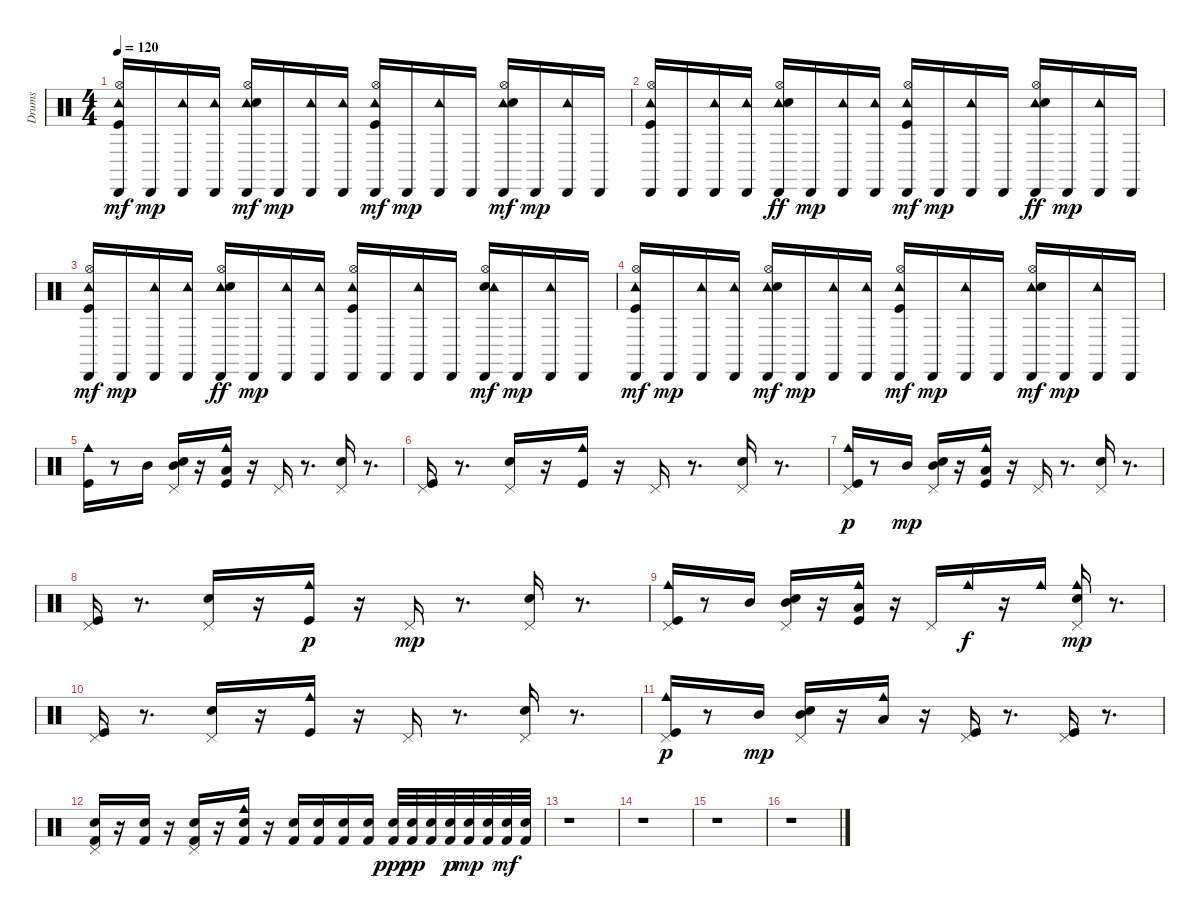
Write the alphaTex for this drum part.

\track ("Drums" "Drums") {instrument percussion}
\staff {score}
\articulation defaults
\ts (4 4)
\tempo 120
\clef neutral
\ks c
("Cabasa (hit)" "Hi-Hat (open)" "Tambourine (hit)" "Kick (hit)").16{dy mf} "Cabasa (hit)".16{dy mp} ("Cabasa (hit)" "Tambourine (hit)").16 ("Cabasa (hit)" "Tambourine (hit)").16 ("Cabasa (hit)" "Tambourine (hit)" "Electric Snare (hit)" "Hi-Hat (open)").16{dy mf} "Cabasa (hit)".16{dy mp} ("Tambourine (hit)" "Cabasa (hit)").16 ("Cabasa (hit)" "Tambourine (hit)").16 ("Tambourine (hit)" "Kick (hit)" "Cabasa (hit)" "Hi-Hat (open)").16{dy mf} "Cabasa (hit)".16{dy mp} ("Tambourine (hit)" "Cabasa (hit)").16 "Cabasa (hit)".16 ("Tambourine (hit)" "Electric Snare (hit)" "Cabasa (hit)" "Hi-Hat (open)").16{dy mf} "Cabasa (hit)".16{dy mp} ("Cabasa (hit)" "Tambourine (hit)").16 "Cabasa (hit)".16 |
("Hi-Hat (open)" "Kick (hit)" "Cabasa (hit)" "Tambourine (hit)").16 "Cabasa (hit)".16 ("Tambourine (hit)" "Cabasa (hit)").16 ("Tambourine (hit)" "Cabasa (hit)").16 ("Cabasa (hit)" "Tambourine (hit)" "Hi-Hat (open)" "Electric Snare (hit)").16{dy ff} "Cabasa (hit)".16{dy mp} ("Tambourine (hit)" "Cabasa (hit)").16 ("Cabasa (hit)" "Tambourine (hit)").16 ("Cabasa (hit)" "Kick (hit)" "Hi-Hat (open)" "Tambourine (hit)").16{dy mf} "Cabasa (hit)".16{dy mp} ("Tambourine (hit)" "Cabasa (hit)").16 "Cabasa (hit)".16 ("Hi-Hat (open)" "Tambourine (hit)" "Cabasa (hit)" "Electric Snare (hit)").16{dy ff} "Cabasa (hit)".16{dy mp} ("Tambourine (hit)" "Cabasa (hit)").16 "Cabasa (hit)".16 |
("Tambourine (hit)" "Cabasa (hit)" "Hi-Hat (open)" "Kick (hit)").16{dy mf} "Cabasa (hit)".16{dy mp} ("Tambourine (hit)" "Cabasa (hit)").16 ("Tambourine (hit)" "Cabasa (hit)").16 ("Hi-Hat (open)" "Cabasa (hit)" "Tambourine (hit)" "Electric Snare (hit)").16{dy ff} "Cabasa (hit)".16{dy mp} ("Cabasa (hit)" "Tambourine (hit)").16 ("Tambourine (hit)" "Cabasa (hit)").16 ("Hi-Hat (open)" "Cabasa (hit)" "Tambourine (hit)" "Kick (hit)").16 "Cabasa (hit)".16 ("Tambourine (hit)" "Cabasa (hit)").16 "Cabasa (hit)".16 ("Cabasa (hit)" "Electric Snare (hit)" "Hi-Hat (open)" "Tambourine (hit)").16{dy mf} "Cabasa (hit)".16{dy mp} ("Tambourine (hit)" "Cabasa (hit)").16 "Cabasa (hit)".16 |
("Cabasa (hit)" "Kick (hit)" "Hi-Hat (open)" "Tambourine (hit)").16{dy mf} "Cabasa (hit)".16{dy mp} ("Cabasa (hit)" "Tambourine (hit)").16 ("Cabasa (hit)" "Tambourine (hit)").16 ("Cabasa (hit)" "Tambourine (hit)" "Electric Snare (hit)" "Hi-Hat (open)").16{dy mf} "Cabasa (hit)".16{dy mp} ("Tambourine (hit)" "Cabasa (hit)").16 ("Tambourine (hit)" "Cabasa (hit)").16 ("Cabasa (hit)" "Tambourine (hit)" "Hi-Hat (open)" "Kick (hit)").16{dy mf} "Cabasa (hit)".16{dy mp} ("Cabasa (hit)" "Tambourine (hit)").16 "Cabasa (hit)".16 ("Tambourine (hit)" "Electric Snare (hit)" "Cabasa (hit)" "Hi-Hat (open)").16{dy mf} "Cabasa (hit)".16{dy mp} ("Cabasa (hit)" "Tambourine (hit)").16 "Cabasa (hit)".16 |
("Kick (hit)" "Cowbell medium (hit)").16 r.8 "Mid Tom (hit)".16 ("Hand Clap (hit)" "Mid Tom (hit)" "Pedal Hi-Hat (hit)").16 r.16 ("Cowbell medium (hit)" "Kick (hit)" "Low Floor Tom (hit)").16 r.16 "Pedal Hi-Hat (hit)".16 r.8{d} ("Hand Clap (hit)" "Pedal Hi-Hat (hit)").16 r.8{d} |
("Kick (hit)" "Pedal Hi-Hat (hit)").16 r.8{d} ("Hand Clap (hit)" "Pedal Hi-Hat (hit)").16 r.16 ("Cowbell medium (hit)" "Kick (hit)").16 r.16 "Pedal Hi-Hat (hit)".16 r.8{d} ("Pedal Hi-Hat (hit)" "Hand Clap (hit)").16 r.8{d} |
("Kick (hit)" "Pedal Hi-Hat (hit)" "Cowbell medium (hit)").16{dy p} r.8 "Mid Tom (hit)".16{dy mp} ("Pedal Hi-Hat (hit)" "Hand Clap (hit)" "Mid Tom (hit)").16 r.16 ("Cowbell medium (hit)" "Kick (hit)" "Low Floor Tom (hit)").16 r.16 "Pedal Hi-Hat (hit)".16 r.8{d} ("Hand Clap (hit)" "Pedal Hi-Hat (hit)").16 r.8{d} |
("Kick (hit)" "Pedal Hi-Hat (hit)").16 r.8{d} ("Pedal Hi-Hat (hit)" "Hand Clap (hit)").16 r.16 ("Cowbell medium (hit)" "Kick (hit)").16{dy p} r.16 "Pedal Hi-Hat (hit)".16{dy mp} r.8{d} ("Hand Clap (hit)" "Pedal Hi-Hat (hit)").16 r.8{d} |
("Kick (hit)" "Cowbell medium (hit)" "Pedal Hi-Hat (hit)").16 r.8 "Mid Tom (hit)".16 ("Hand Clap (hit)" "Pedal Hi-Hat (hit)" "Mid Tom (hit)").16 r.16 ("Low Floor Tom (hit)" "Cowbell medium (hit)" "Kick (hit)").16 r.16 "Pedal Hi-Hat (hit)".16 "Cowbell medium (hit)".16{dy f} r.16 "Cowbell medium (hit)".16 ("Pedal Hi-Hat (hit)" "Hand Clap (hit)" "Cowbell medium (hit)").16{dy mp} r.8{d} |
("Kick (hit)" "Pedal Hi-Hat (hit)").16 r.8{d} ("Hand Clap (hit)" "Pedal Hi-Hat (hit)").16 r.16 ("Kick (hit)" "Cowbell medium (hit)").16 r.16 "Pedal Hi-Hat (hit)".16 r.8{d} ("Pedal Hi-Hat (hit)" "Hand Clap (hit)").16 r.8{d} |
("Pedal Hi-Hat (hit)" "Kick (hit)" "Cowbell medium (hit)").16{dy p} r.8 "Mid Tom (hit)".16{dy mp} ("Mid Tom (hit)" "Hand Clap (hit)" "Pedal Hi-Hat (hit)").16 r.16 ("Cowbell medium (hit)" "Low Floor Tom (hit)").16 r.16 ("Kick (hit)" "Pedal Hi-Hat (hit)").16 r.8{d} ("Pedal Hi-Hat (hit)" "Kick (hit)").16 r.8{d} |
("Kick (hit) 2" "Pedal Hi-Hat (hit)" "Electric Snare (hit)").16 r.16 ("Kick (hit) 2" "Electric Snare (hit)").16 r.16 ("Electric Snare (hit)" "Pedal Hi-Hat (hit)" "Kick (hit) 2").16 r.16 ("Kick (hit) 2" "Cowbell medium (hit)" "Electric Snare (hit)").16 r.16 ("Kick (hit) 2" "Electric Snare (hit)").16 ("Electric Snare (hit)" "Kick (hit) 2").16 ("Electric Snare (hit)" "Kick (hit) 2").16 ("Kick (hit) 2" "Electric Snare (hit)").16 ("Kick (hit) 2" "Electric Snare (hit)").32{dy ppp} ("Electric Snare (hit)" "Kick (hit) 2").32{dy pp} ("Electric Snare (hit)" "Kick (hit) 2").32 ("Kick (hit) 2" "Electric Snare (hit)").32{dy p} ("Kick (hit) 2" "Electric Snare (hit)").32{dy mp} ("Kick (hit) 2" "Electric Snare (hit)").32 ("Electric Snare (hit)" "Kick (hit) 2").32{dy mf} ("Kick (hit) 2" "Electric Snare (hit)").32 |
r.1 |
r.1 |
r.1 |
r.1
